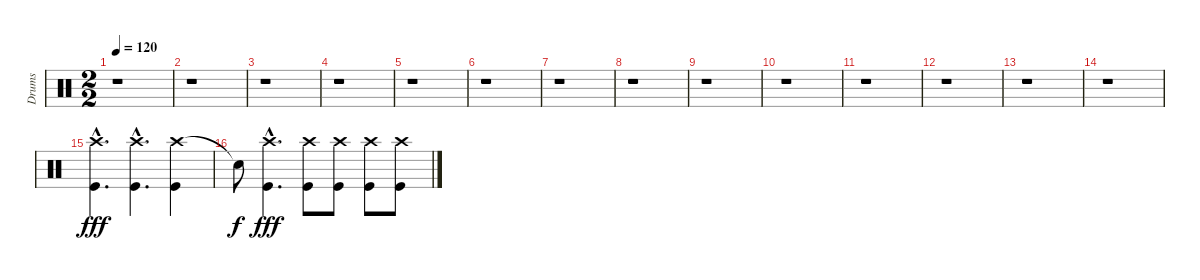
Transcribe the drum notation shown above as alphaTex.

\track ("Drums" "Drums") {instrument percussion}
\staff {score}
\articulation defaults
\ts (2 2)
\tempo 120
\clef neutral
\ks c
r.1{dy fff} |
r.1 |
r.1 |
r.1 |
r.1 |
r.1 |
r.1 |
r.1 |
r.1 |
r.1 |
r.1 |
r.1 |
r.1 |
r.1 |
("Crash high (hit)" "Kick (hit)"{hac}).4{d} ("Crash high (hit)" "Kick (hit)"{hac}).4{d} ("Crash high (hit)" "Kick (hit)").4 |
"Snare (hit)"{t}.8{dy f} ("Crash high (hit)" "Kick (hit)"{hac}).4{d dy fff} ("Crash high (hit)" "Kick (hit)").8 ("Crash high (hit)" "Kick (hit)").8 ("Crash high (hit)" "Kick (hit)").8 ("Crash high (hit)" "Kick (hit)").8
